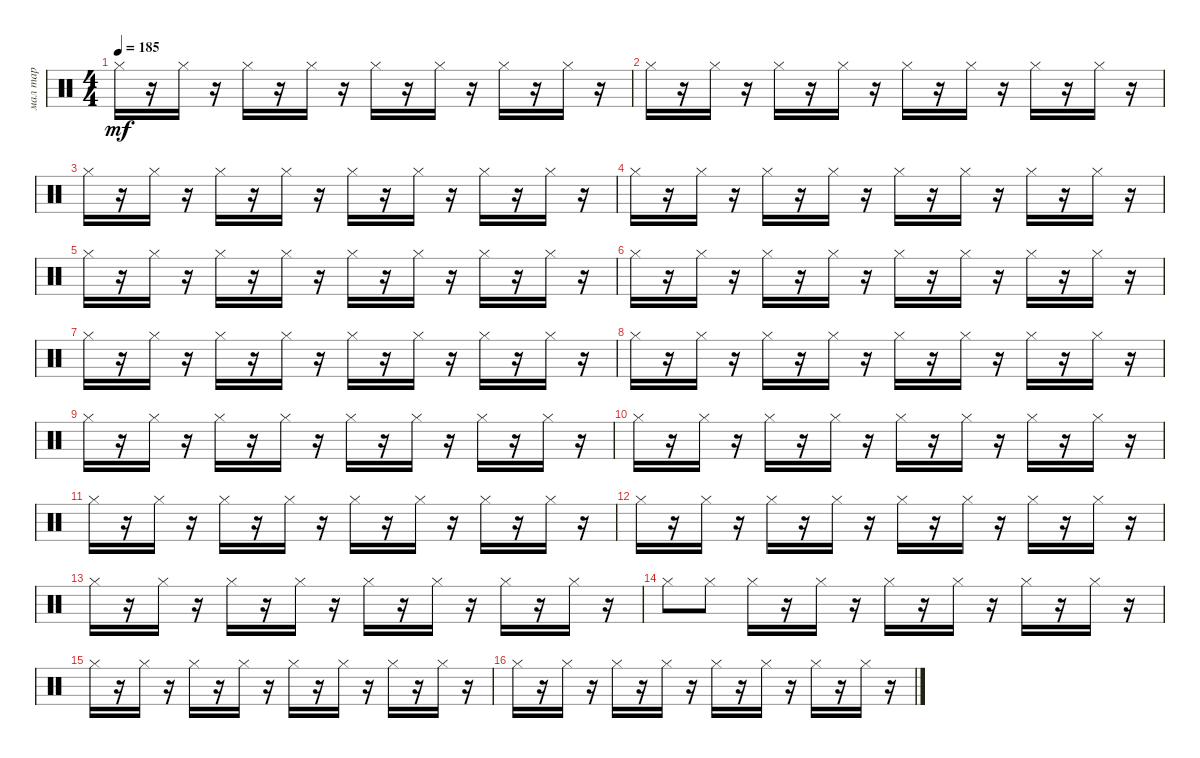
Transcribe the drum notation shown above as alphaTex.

\track ("мал тар" "мал тар") {instrument percussion}
\staff {score}
\articulation defaults
\ts (4 4)
\tempo 185
\clef neutral
\ks c "Hi-Hat (closed)".16{dy mf}
r.16 "Hi-Hat (closed)".16 r.16 "Hi-Hat (closed)".16 r.16 "Hi-Hat (closed)".16 r.16 "Hi-Hat (closed)".16 r.16 "Hi-Hat (closed)".16 r.16 "Hi-Hat (closed)".16 r.16 "Hi-Hat (closed)".16 r.16 |
"Hi-Hat (closed)".16 r.16 "Hi-Hat (closed)".16 r.16 "Hi-Hat (closed)".16 r.16 "Hi-Hat (closed)".16 r.16 "Hi-Hat (closed)".16 r.16 "Hi-Hat (closed)".16 r.16 "Hi-Hat (closed)".16 r.16 "Hi-Hat (closed)".16 r.16 |
"Hi-Hat (closed)".16 r.16 "Hi-Hat (closed)".16 r.16 "Hi-Hat (closed)".16 r.16 "Hi-Hat (closed)".16 r.16 "Hi-Hat (closed)".16 r.16 "Hi-Hat (closed)".16 r.16 "Hi-Hat (closed)".16 r.16 "Hi-Hat (closed)".16 r.16 |
"Hi-Hat (closed)".16 r.16 "Hi-Hat (closed)".16 r.16 "Hi-Hat (closed)".16 r.16 "Hi-Hat (closed)".16 r.16 "Hi-Hat (closed)".16 r.16 "Hi-Hat (closed)".16 r.16 "Hi-Hat (closed)".16 r.16 "Hi-Hat (closed)".16 r.16 |
"Hi-Hat (closed)".16 r.16 "Hi-Hat (closed)".16 r.16 "Hi-Hat (closed)".16 r.16 "Hi-Hat (closed)".16 r.16 "Hi-Hat (closed)".16 r.16 "Hi-Hat (closed)".16 r.16 "Hi-Hat (closed)".16 r.16 "Hi-Hat (closed)".16 r.16 |
"Hi-Hat (closed)".16 r.16 "Hi-Hat (closed)".16 r.16 "Hi-Hat (closed)".16 r.16 "Hi-Hat (closed)".16 r.16 "Hi-Hat (closed)".16 r.16 "Hi-Hat (closed)".16 r.16 "Hi-Hat (closed)".16 r.16 "Hi-Hat (closed)".16 r.16 |
"Hi-Hat (closed)".16 r.16 "Hi-Hat (closed)".16 r.16 "Hi-Hat (closed)".16 r.16 "Hi-Hat (closed)".16 r.16 "Hi-Hat (closed)".16 r.16 "Hi-Hat (closed)".16 r.16 "Hi-Hat (closed)".16 r.16 "Hi-Hat (closed)".16 r.16 |
"Hi-Hat (closed)".16 r.16 "Hi-Hat (closed)".16 r.16 "Hi-Hat (closed)".16 r.16 "Hi-Hat (closed)".16 r.16 "Hi-Hat (closed)".16 r.16 "Hi-Hat (closed)".16 r.16 "Hi-Hat (closed)".16 r.16 "Hi-Hat (closed)".16 r.16 |
"Hi-Hat (closed)".16 r.16 "Hi-Hat (closed)".16 r.16 "Hi-Hat (closed)".16 r.16 "Hi-Hat (closed)".16 r.16 "Hi-Hat (closed)".16 r.16 "Hi-Hat (closed)".16 r.16 "Hi-Hat (closed)".16 r.16 "Hi-Hat (closed)".16 r.16 |
"Hi-Hat (closed)".16 r.16 "Hi-Hat (closed)".16 r.16 "Hi-Hat (closed)".16 r.16 "Hi-Hat (closed)".16 r.16 "Hi-Hat (closed)".16 r.16 "Hi-Hat (closed)".16 r.16 "Hi-Hat (closed)".16 r.16 "Hi-Hat (closed)".16 r.16 |
"Hi-Hat (closed)".16 r.16 "Hi-Hat (closed)".16 r.16 "Hi-Hat (closed)".16 r.16 "Hi-Hat (closed)".16 r.16 "Hi-Hat (closed)".16 r.16 "Hi-Hat (closed)".16 r.16 "Hi-Hat (closed)".16 r.16 "Hi-Hat (closed)".16 r.16 |
"Hi-Hat (closed)".16 r.16 "Hi-Hat (closed)".16 r.16 "Hi-Hat (closed)".16 r.16 "Hi-Hat (closed)".16 r.16 "Hi-Hat (closed)".16 r.16 "Hi-Hat (closed)".16 r.16 "Hi-Hat (closed)".16 r.16 "Hi-Hat (closed)".16 r.16 |
"Hi-Hat (closed)".16 r.16 "Hi-Hat (closed)".16 r.16 "Hi-Hat (closed)".16 r.16 "Hi-Hat (closed)".16 r.16 "Hi-Hat (closed)".16 r.16 "Hi-Hat (closed)".16 r.16 "Hi-Hat (closed)".16 r.16 "Hi-Hat (closed)".16 r.16 |
"Hi-Hat (closed)".8 "Hi-Hat (closed)".8 "Hi-Hat (closed)".16 r.16 "Hi-Hat (closed)".16 r.16 "Hi-Hat (closed)".16 r.16 "Hi-Hat (closed)".16 r.16 "Hi-Hat (closed)".16 r.16 "Hi-Hat (closed)".16 r.16 |
"Hi-Hat (closed)".16 r.16 "Hi-Hat (closed)".16 r.16 "Hi-Hat (closed)".16 r.16 "Hi-Hat (closed)".16 r.16 "Hi-Hat (closed)".16 r.16 "Hi-Hat (closed)".16 r.16 "Hi-Hat (closed)".16 r.16 "Hi-Hat (closed)".16 r.16 |
"Hi-Hat (closed)".16 r.16 "Hi-Hat (closed)".16 r.16 "Hi-Hat (closed)".16 r.16 "Hi-Hat (closed)".16 r.16 "Hi-Hat (closed)".16 r.16 "Hi-Hat (closed)".16 r.16 "Hi-Hat (closed)".16 r.16 "Hi-Hat (closed)".16 r.16
